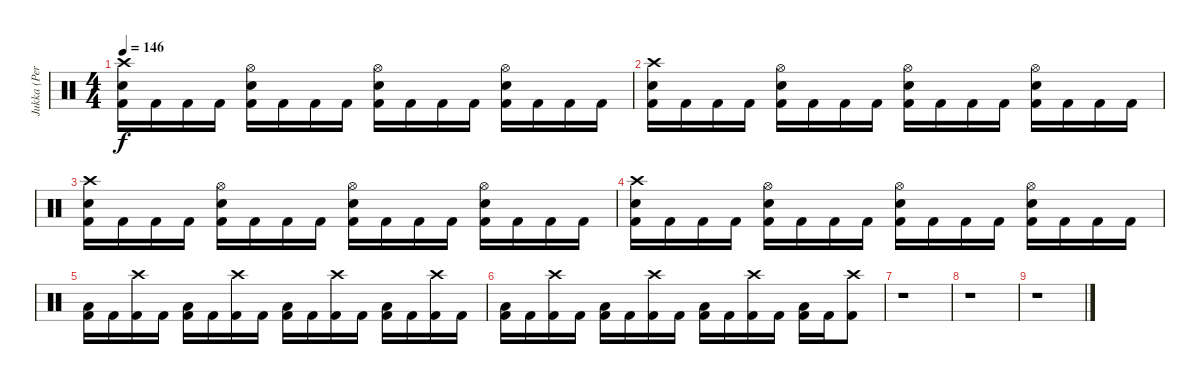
\track ("Jukka (Percussion)" "Jukka (Per") {instrument percussion}
\staff {score}
\articulation defaults
\ts (4 4)
\tempo 146
\clef neutral
\ks c
("Crash high (hit)" "Snare (hit) 2" "Kick (hit) 2").16{dy f} "Kick (hit) 2".16 "Kick (hit) 2".16 "Kick (hit) 2".16 ("Hi-Hat (open)" "Snare (hit) 2" "Kick (hit) 2").16 "Kick (hit) 2".16 "Kick (hit) 2".16 "Kick (hit) 2".16 ("Hi-Hat (open)" "Snare (hit) 2" "Kick (hit) 2").16 "Kick (hit) 2".16 "Kick (hit) 2".16 "Kick (hit) 2".16 ("Hi-Hat (open)" "Snare (hit) 2" "Kick (hit) 2").16 "Kick (hit) 2".16 "Kick (hit) 2".16 "Kick (hit) 2".16 |
("Crash high (hit)" "Snare (hit) 2" "Kick (hit) 2").16 "Kick (hit) 2".16 "Kick (hit) 2".16 "Kick (hit) 2".16 ("Hi-Hat (open)" "Snare (hit) 2" "Kick (hit) 2").16 "Kick (hit) 2".16 "Kick (hit) 2".16 "Kick (hit) 2".16 ("Hi-Hat (open)" "Snare (hit) 2" "Kick (hit) 2").16 "Kick (hit) 2".16 "Kick (hit) 2".16 "Kick (hit) 2".16 ("Hi-Hat (open)" "Snare (hit) 2" "Kick (hit) 2").16 "Kick (hit) 2".16 "Kick (hit) 2".16 "Kick (hit) 2".16 |
("Crash high (hit)" "Snare (hit) 2" "Kick (hit) 2").16 "Kick (hit) 2".16 "Kick (hit) 2".16 "Kick (hit) 2".16 ("Hi-Hat (open)" "Snare (hit) 2" "Kick (hit) 2").16 "Kick (hit) 2".16 "Kick (hit) 2".16 "Kick (hit) 2".16 ("Hi-Hat (open)" "Snare (hit) 2" "Kick (hit) 2").16 "Kick (hit) 2".16 "Kick (hit) 2".16 "Kick (hit) 2".16 ("Hi-Hat (open)" "Snare (hit) 2" "Kick (hit) 2").16 "Kick (hit) 2".16 "Kick (hit) 2".16 "Kick (hit) 2".16 |
("Crash high (hit)" "Snare (hit) 2" "Kick (hit) 2").16 "Kick (hit) 2".16 "Kick (hit) 2".16 "Kick (hit) 2".16 ("Hi-Hat (open)" "Snare (hit) 2" "Kick (hit) 2").16 "Kick (hit) 2".16 "Kick (hit) 2".16 "Kick (hit) 2".16 ("Hi-Hat (open)" "Snare (hit) 2" "Kick (hit) 2").16 "Kick (hit) 2".16 "Kick (hit) 2".16 "Kick (hit) 2".16 ("Hi-Hat (open)" "Snare (hit) 2" "Kick (hit) 2").16 "Kick (hit) 2".16 "Kick (hit) 2".16 "Kick (hit) 2".16 |
("Low Tom (hit)" "Kick (hit) 2").16 "Kick (hit) 2".16 ("Crash high (hit)" "Kick (hit) 2").16 "Kick (hit) 2".16 ("Low Tom (hit)" "Kick (hit) 2").16 "Kick (hit) 2".16 ("Crash high (hit)" "Kick (hit) 2").16 "Kick (hit) 2".16 ("Low Tom (hit)" "Kick (hit) 2").16 "Kick (hit) 2".16 ("Crash high (hit)" "Kick (hit) 2").16 "Kick (hit) 2".16 ("Low Tom (hit)" "Kick (hit) 2").16 "Kick (hit) 2".16 ("Crash high (hit)" "Kick (hit) 2").16 "Kick (hit) 2".16 |
("Low Tom (hit)" "Kick (hit) 2").16 "Kick (hit) 2".16 ("Crash high (hit)" "Kick (hit) 2").16 "Kick (hit) 2".16 ("Low Tom (hit)" "Kick (hit) 2").16 "Kick (hit) 2".16 ("Crash high (hit)" "Kick (hit) 2").16 "Kick (hit) 2".16 ("Low Tom (hit)" "Kick (hit) 2").16 "Kick (hit) 2".16 ("Crash high (hit)" "Kick (hit) 2").16 "Kick (hit) 2".16 ("Low Tom (hit)" "Kick (hit) 2").16 "Kick (hit) 2".16 ("Crash high (hit)" "Kick (hit) 2").8 |
r.1 |
r.1 |
r.1
